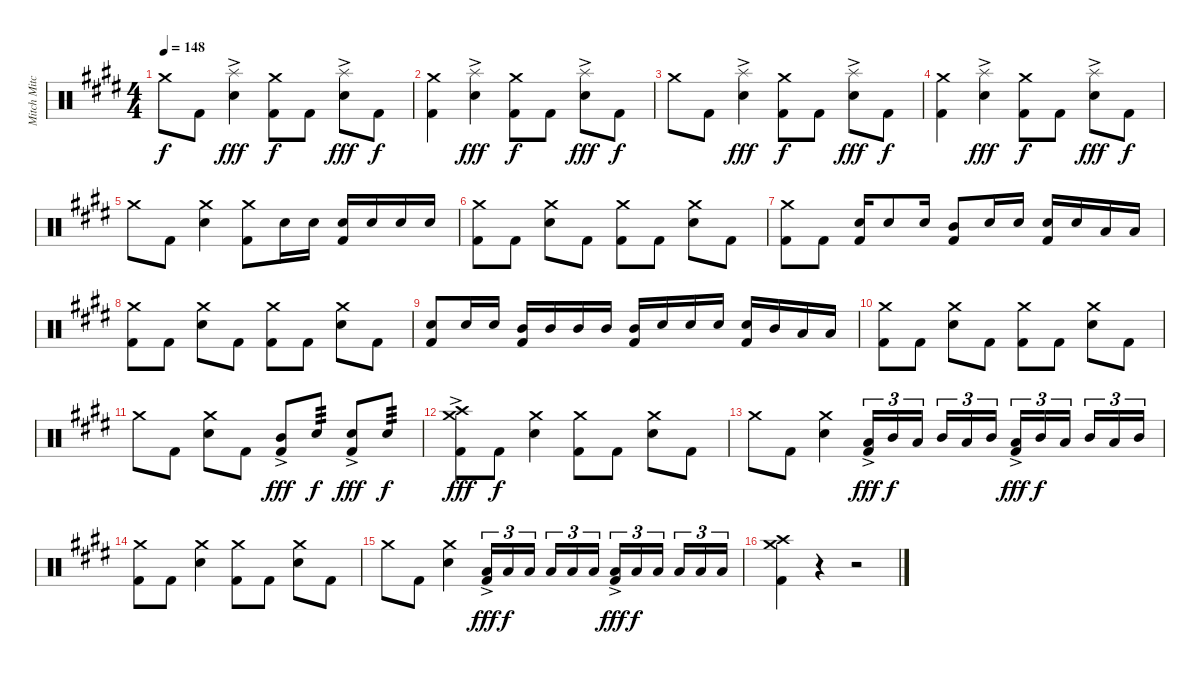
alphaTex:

\track ("Mitch Mitchell" "Mitch Mitc") {instrument percussion}
\staff {score}
\articulation defaults
\ts (4 4)
\tempo 148
\clef neutral
\ks e "Crash medium (hit)".8{dy f} "Kick (hit) 2".8
("Splash (hit)"{ac} "Snare (hit) 2"{ac}).4{dy fff} ("Crash medium (hit)" "Kick (hit) 2").8{dy f} "Kick (hit) 2".8 ("Splash (hit)"{ac} "Snare (hit) 2"{ac}).8{dy fff} "Kick (hit) 2".8{dy f} |
("Crash medium (hit)" "Kick (hit) 2").4 ("Splash (hit)"{ac} "Snare (hit) 2"{ac}).4{dy fff} ("Crash medium (hit)" "Kick (hit) 2").8{dy f} "Kick (hit) 2".8 ("Splash (hit)"{ac} "Snare (hit) 2"{ac}).8{dy fff} "Kick (hit) 2".8{dy f} |
"Crash medium (hit)".8 "Kick (hit) 2".8 ("Splash (hit)"{ac} "Snare (hit) 2"{ac}).4{dy fff} ("Crash medium (hit)" "Kick (hit) 2").8{dy f} "Kick (hit) 2".8 ("Splash (hit)"{ac} "Snare (hit) 2"{ac}).8{dy fff} "Kick (hit) 2".8{dy f} |
("Crash medium (hit)" "Kick (hit) 2").4 ("Splash (hit)"{ac} "Snare (hit) 2"{ac}).4{dy fff} ("Crash medium (hit)" "Kick (hit) 2").8{dy f} "Kick (hit) 2".8 ("Splash (hit)"{ac} "Snare (hit) 2"{ac}).8{dy fff} "Kick (hit) 2".8{dy f} |
"Crash medium (hit)".8 "Kick (hit) 2".8 ("Crash medium (hit)" "Snare (hit) 2").4 ("Crash medium (hit)" "Kick (hit) 2").8 "Snare (hit) 2".16 "Snare (hit) 2".16 ("Snare (hit) 2" "Kick (hit) 2").16 "Snare (hit) 2".16 "Snare (hit) 2".16 "Snare (hit) 2".16 |
("Crash medium (hit)" "Kick (hit) 2").8 "Kick (hit) 2".8 ("Crash medium (hit)" "Snare (hit) 2").8 "Kick (hit) 2".8 ("Crash medium (hit)" "Kick (hit) 2").8 "Kick (hit) 2".8 ("Crash medium (hit)" "Snare (hit) 2").8 "Kick (hit) 2".8 |
("Crash medium (hit)" "Kick (hit) 2").8 "Kick (hit) 2".8 ("Snare (hit) 2" "Kick (hit) 2").16 "Snare (hit) 2".8 "Snare (hit) 2".16 ("Mid Tom (hit)" "Kick (hit) 2").8 "Snare (hit) 2".16 "Snare (hit) 2".16 ("Snare (hit) 2" "Kick (hit) 2").16 "Snare (hit) 2".16 "Low Tom (hit)".16 "Low Tom (hit)".16 |
("Crash medium (hit)" "Kick (hit) 2").8 "Kick (hit) 2".8 ("Crash medium (hit)" "Snare (hit) 2").8 "Kick (hit) 2".8 ("Crash medium (hit)" "Kick (hit) 2").8 "Kick (hit) 2".8 ("Crash medium (hit)" "Snare (hit) 2").8 "Kick (hit) 2".8 |
("Snare (hit) 2" "Kick (hit) 2").8 "Snare (hit) 2".16 "Snare (hit) 2".16 ("Mid Tom (hit)" "Kick (hit) 2").16 "Mid Tom (hit)".16 "Mid Tom (hit)".16 "Mid Tom (hit)".16 ("Mid Tom (hit)" "Kick (hit) 2").16 "Snare (hit) 2".16 "Snare (hit) 2".16 "Snare (hit) 2".16 ("Snare (hit) 2" "Kick (hit) 2").16 "Mid Tom (hit)".16 "Low Tom (hit)".16 "Low Tom (hit)".16 |
("Crash medium (hit)" "Kick (hit) 2").8 "Kick (hit) 2".8 ("Crash medium (hit)" "Snare (hit) 2").8 "Kick (hit) 2".8 ("Crash medium (hit)" "Kick (hit) 2").8 "Kick (hit) 2".8 ("Crash medium (hit)" "Snare (hit) 2").8 "Kick (hit) 2".8 |
"Crash medium (hit)".8 "Kick (hit) 2".8 ("Crash medium (hit)" "Snare (hit) 2").8 "Kick (hit) 2".8 ("Mid Tom (hit)"{ac} "Kick (hit) 2").8{dy fff} "Snare (hit) 2".8{tp 3 dy f} ("Snare (hit) 2"{ac} "Kick (hit) 2").8{dy fff} "Snare (hit) 2".8{tp 3 dy f} |
("Crash medium (hit)"{ac} "Crash high (hit)"{ac} "Kick (hit) 2"{ac}).8{dy fff} "Kick (hit) 2".8{dy f} ("Crash medium (hit)" "Snare (hit) 2").4 ("Crash medium (hit)" "Kick (hit) 2").8 "Kick (hit) 2".8 ("Crash medium (hit)" "Snare (hit) 2").8 "Kick (hit) 2".8 |
"Crash medium (hit)".8 "Kick (hit) 2".8 ("Crash medium (hit)" "Snare (hit) 2").4 ("Low Tom (hit)"{ac} "Kick (hit) 2"{ac}).16{tu (3 2) dy fff} "Mid Tom (hit)".16{tu (3 2) dy f} "Low Tom (hit)".16{tu (3 2)} "Mid Tom (hit)".16{tu (3 2)} "Low Tom (hit)".16{tu (3 2)} "Mid Tom (hit)".16{tu (3 2)} ("Low Tom (hit)"{ac} "Kick (hit) 2"{ac}).16{tu (3 2) dy fff} "Mid Tom (hit)".16{tu (3 2) dy f} "Low Tom (hit)".16{tu (3 2)} "Mid Tom (hit)".16{tu (3 2)} "Low Tom (hit)".16{tu (3 2)} "Mid Tom (hit)".16{tu (3 2)} |
("Crash medium (hit)" "Kick (hit) 2").8 "Kick (hit) 2".8 ("Crash medium (hit)" "Snare (hit) 2").4 ("Crash medium (hit)" "Kick (hit) 2").8 "Kick (hit) 2".8 ("Crash medium (hit)" "Snare (hit) 2").8 "Kick (hit) 2".8 |
"Crash medium (hit)".8 "Kick (hit) 2".8 ("Crash medium (hit)" "Snare (hit) 2").4 ("Low Tom (hit)"{ac} "Kick (hit) 2"{ac}).16{tu (3 2) dy fff} "Low Tom (hit)".16{tu (3 2) dy f} "Low Tom (hit)".16{tu (3 2)} "Low Tom (hit)".16{tu (3 2)} "Low Tom (hit)".16{tu (3 2)} "Low Tom (hit)".16{tu (3 2)} ("Low Tom (hit)"{ac} "Kick (hit) 2"{ac}).16{tu (3 2) dy fff} "Low Tom (hit)".16{tu (3 2) dy f} "Low Tom (hit)".16{tu (3 2)} "Low Tom (hit)".16{tu (3 2)} "Low Tom (hit)".16{tu (3 2)} "Low Tom (hit)".16{tu (3 2)} |
("Crash high (hit)" "Crash medium (hit)" "Kick (hit) 2").4 r.4 r.2
